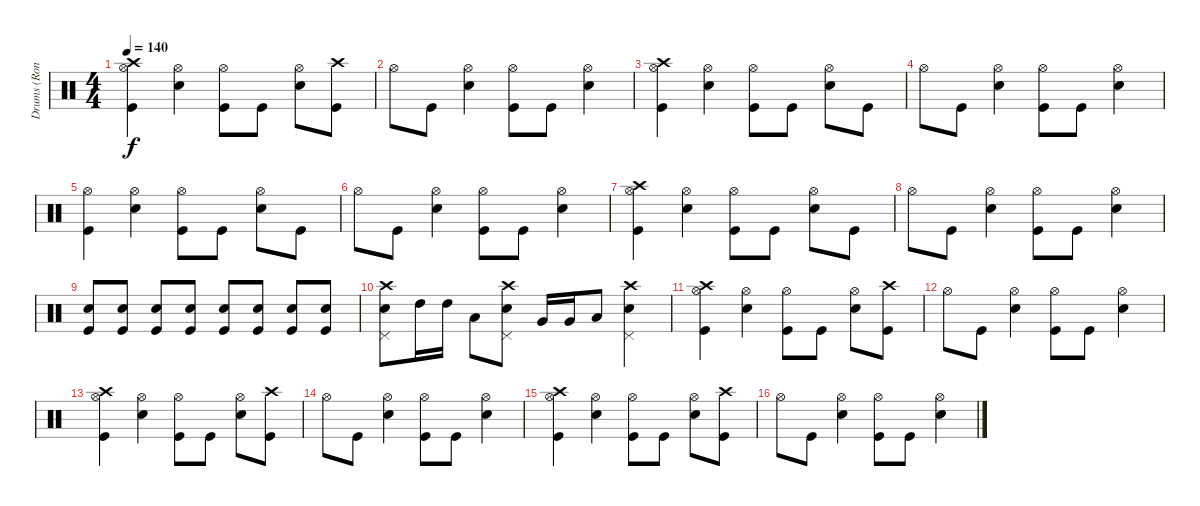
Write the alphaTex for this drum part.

\track ("Drums (Ron Welty)" "Drums (Ron") {instrument percussion}
\staff {score}
\articulation defaults
\ts (4 4)
\tempo 140
\clef neutral
\ks c
("Kick (hit)" "Crash high (hit)" "Hi-Hat (open)").4{dy f} ("Snare (hit) 2" "Hi-Hat (open)").4 ("Kick (hit)" "Hi-Hat (open)").8 "Kick (hit)".8 ("Snare (hit) 2" "Hi-Hat (open)").8 ("Kick (hit)" "Crash high (hit)").8 |
"Hi-Hat (open)".8 "Kick (hit)".8 ("Snare (hit) 2" "Hi-Hat (open)").4 ("Kick (hit)" "Hi-Hat (open)").8 "Kick (hit)".8 ("Snare (hit) 2" "Hi-Hat (open)").4 |
("Kick (hit)" "Crash high (hit)" "Hi-Hat (open)").4 ("Snare (hit) 2" "Hi-Hat (open)").4 ("Kick (hit)" "Hi-Hat (open)").8 "Kick (hit)".8 ("Snare (hit) 2" "Hi-Hat (open)").8 "Kick (hit)".8 |
"Hi-Hat (open)".8 "Kick (hit)".8 ("Snare (hit) 2" "Hi-Hat (open)").4 ("Kick (hit)" "Hi-Hat (open)").8 "Kick (hit)".8 ("Snare (hit) 2" "Hi-Hat (open)").4 |
("Kick (hit)" "Hi-Hat (open)").4 ("Snare (hit) 2" "Hi-Hat (open)").4 ("Kick (hit)" "Hi-Hat (open)").8 "Kick (hit)".8 ("Snare (hit) 2" "Hi-Hat (open)").8 "Kick (hit)".8 |
"Hi-Hat (open)".8 "Kick (hit)".8 ("Snare (hit) 2" "Hi-Hat (open)").4 ("Kick (hit)" "Hi-Hat (open)").8 "Kick (hit)".8 ("Snare (hit) 2" "Hi-Hat (open)").4 |
("Kick (hit)" "Crash high (hit)" "Hi-Hat (open)").4 ("Snare (hit) 2" "Hi-Hat (open)").4 ("Kick (hit)" "Hi-Hat (open)").8 "Kick (hit)".8 ("Snare (hit) 2" "Hi-Hat (open)").8 "Kick (hit)".8 |
"Hi-Hat (open)".8 "Kick (hit)".8 ("Snare (hit) 2" "Hi-Hat (open)").4 ("Kick (hit)" "Hi-Hat (open)").8 "Kick (hit)".8 ("Snare (hit) 2" "Hi-Hat (open)").4 |
("Kick (hit)" "Snare (hit) 2").8 ("Kick (hit)" "Snare (hit) 2").8 ("Kick (hit)" "Snare (hit) 2").8 ("Kick (hit)" "Snare (hit) 2").8 ("Kick (hit)" "Snare (hit) 2").8 ("Kick (hit)" "Snare (hit) 2").8 ("Kick (hit)" "Snare (hit) 2").8 ("Kick (hit)" "Snare (hit) 2").8 |
("Snare (hit) 2" "Crash high (hit)" "Pedal Hi-Hat (hit)").8 "High Tom (hit)".16 "High Tom (hit)".16 "Low Tom (hit)".8 ("Snare (hit) 2" "Crash high (hit)" "Pedal Hi-Hat (hit)").8 "Very Low Tom (hit)".16 "Very Low Tom (hit)".16 "Low Floor Tom (hit)".8 ("Snare (hit) 2" "Crash high (hit)" "Pedal Hi-Hat (hit)").4 |
("Kick (hit)" "Crash high (hit)" "Hi-Hat (open)").4 ("Snare (hit) 2" "Hi-Hat (open)").4 ("Kick (hit)" "Hi-Hat (open)").8 "Kick (hit)".8 ("Snare (hit) 2" "Hi-Hat (open)").8 ("Kick (hit)" "Crash high (hit)").8 |
"Hi-Hat (open)".8 "Kick (hit)".8 ("Snare (hit) 2" "Hi-Hat (open)").4 ("Kick (hit)" "Hi-Hat (open)").8 "Kick (hit)".8 ("Snare (hit) 2" "Hi-Hat (open)").4 |
("Kick (hit)" "Crash high (hit)" "Hi-Hat (open)").4 ("Snare (hit) 2" "Hi-Hat (open)").4 ("Kick (hit)" "Hi-Hat (open)").8 "Kick (hit)".8 ("Snare (hit) 2" "Hi-Hat (open)").8 ("Kick (hit)" "Crash high (hit)").8 |
"Hi-Hat (open)".8 "Kick (hit)".8 ("Snare (hit) 2" "Hi-Hat (open)").4 ("Kick (hit)" "Hi-Hat (open)").8 "Kick (hit)".8 ("Snare (hit) 2" "Hi-Hat (open)").4 |
("Kick (hit)" "Crash high (hit)" "Hi-Hat (open)").4 ("Snare (hit) 2" "Hi-Hat (open)").4 ("Kick (hit)" "Hi-Hat (open)").8 "Kick (hit)".8 ("Snare (hit) 2" "Hi-Hat (open)").8 ("Kick (hit)" "Crash high (hit)").8 |
"Hi-Hat (open)".8 "Kick (hit)".8 ("Snare (hit) 2" "Hi-Hat (open)").4 ("Kick (hit)" "Hi-Hat (open)").8 "Kick (hit)".8 ("Snare (hit) 2" "Hi-Hat (open)").4
